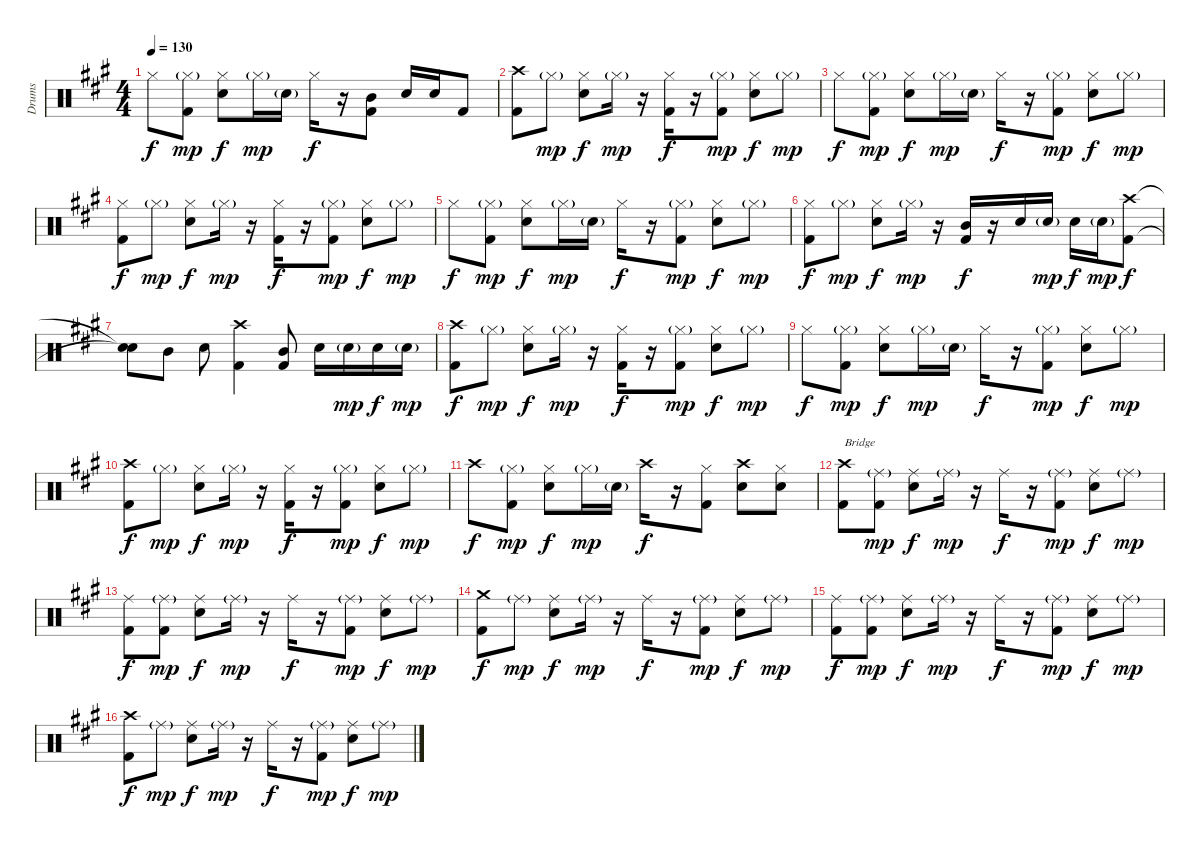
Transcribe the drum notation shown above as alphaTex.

\track ("Drums" "Drums") {instrument percussion}
\staff {score}
\articulation defaults
\ts (4 4)
\tempo 130
\clef neutral
\ks a "Hi-Hat (closed)".8{dy f}
("Hi-Hat (closed)"{g} "Kick (hit) 2").8{dy mp} ("Hi-Hat (closed)" "Electric Snare (hit)").8{dy f} "Hi-Hat (closed)"{g}.16{dy mp} "Electric Snare (hit)"{g}.16 "Hi-Hat (closed)".16{dy f} r.16 ("Mid Tom (hit)" "Kick (hit) 2").8 "Electric Snare (hit)".16 "Electric Snare (hit)".16 "Kick (hit) 2".8 |
("Crash high (hit)" "Kick (hit) 2").8 "Hi-Hat (closed)"{g}.8{dy mp} ("Hi-Hat (closed)" "Electric Snare (hit)").8{dy f} "Hi-Hat (closed)"{g}.16{dy mp} r.16 ("Hi-Hat (closed)" "Kick (hit) 2").16{dy f} r.16 ("Hi-Hat (closed)"{g} "Kick (hit) 2").8{dy mp} ("Hi-Hat (closed)" "Electric Snare (hit)").8{dy f} "Hi-Hat (closed)"{g}.8{dy mp} |
"Hi-Hat (closed)".8{dy f} ("Hi-Hat (closed)"{g} "Kick (hit) 2").8{dy mp} ("Hi-Hat (closed)" "Electric Snare (hit)").8{dy f} "Hi-Hat (closed)"{g}.16{dy mp} "Electric Snare (hit)"{g}.16 "Hi-Hat (closed)".16{dy f} r.16 ("Hi-Hat (closed)"{g} "Kick (hit) 2").8{dy mp} ("Hi-Hat (closed)" "Electric Snare (hit)").8{dy f} "Hi-Hat (closed)"{g}.8{dy mp} |
("Hi-Hat (closed)" "Kick (hit) 2").8{dy f} "Hi-Hat (closed)"{g}.8{dy mp} ("Hi-Hat (closed)" "Electric Snare (hit)").8{dy f} "Hi-Hat (closed)"{g}.16{dy mp} r.16 ("Hi-Hat (closed)" "Kick (hit) 2").16{dy f} r.16 ("Hi-Hat (closed)"{g} "Kick (hit) 2").8{dy mp} ("Hi-Hat (closed)" "Electric Snare (hit)").8{dy f} "Hi-Hat (closed)"{g}.8{dy mp} |
"Hi-Hat (closed)".8{dy f} ("Hi-Hat (closed)"{g} "Kick (hit) 2").8{dy mp} ("Hi-Hat (closed)" "Electric Snare (hit)").8{dy f} "Hi-Hat (closed)"{g}.16{dy mp} "Electric Snare (hit)"{g}.16 "Hi-Hat (closed)".16{dy f} r.16 ("Hi-Hat (closed)"{g} "Kick (hit) 2").8{dy mp} ("Hi-Hat (closed)" "Electric Snare (hit)").8{dy f} "Hi-Hat (closed)"{g}.8{dy mp} |
("Hi-Hat (closed)" "Kick (hit) 2").8{dy f} "Hi-Hat (closed)"{g}.8{dy mp} ("Hi-Hat (closed)" "Electric Snare (hit)").8{dy f} "Hi-Hat (closed)"{g}.16{dy mp} r.16 ("Mid Tom (hit)" "Kick (hit) 2").16{dy f} r.16 "Electric Snare (hit)".16 "Electric Snare (hit)"{g}.16{dy mp} "Electric Snare (hit)".16{dy f} "Electric Snare (hit)"{g}.16{dy mp} ("Crash high (hit)" "Kick (hit) 2").8{dy f} |
("Snare (hit)"{t} "Snare (hit)"{t}).8 "Mid Tom (hit)".8 "Electric Snare (hit)".8 ("Crash high (hit)" "Kick (hit) 2").4 ("Mid Tom (hit)" "Kick (hit) 2").8 "Electric Snare (hit)".16 "Electric Snare (hit)"{g}.16{dy mp} "Electric Snare (hit)".16{dy f} "Electric Snare (hit)"{g}.16{dy mp} |
("Crash high (hit)" "Kick (hit) 2").8{dy f} "Hi-Hat (closed)"{g}.8{dy mp} ("Hi-Hat (closed)" "Electric Snare (hit)").8{dy f} "Hi-Hat (closed)"{g}.16{dy mp} r.16 ("Hi-Hat (closed)" "Kick (hit) 2").16{dy f} r.16 ("Hi-Hat (closed)"{g} "Kick (hit) 2").8{dy mp} ("Hi-Hat (closed)" "Electric Snare (hit)").8{dy f} "Hi-Hat (closed)"{g}.8{dy mp} |
"Hi-Hat (closed)".8{dy f} ("Hi-Hat (closed)"{g} "Kick (hit) 2").8{dy mp} ("Hi-Hat (closed)" "Electric Snare (hit)").8{dy f} "Hi-Hat (closed)"{g}.16{dy mp} "Electric Snare (hit)"{g}.16 "Hi-Hat (closed)".16{dy f} r.16 ("Hi-Hat (closed)"{g} "Kick (hit) 2").8{dy mp} ("Hi-Hat (closed)" "Electric Snare (hit)").8{dy f} "Hi-Hat (closed)"{g}.8{dy mp} |
("Crash high (hit)" "Kick (hit) 2").8{dy f} "Hi-Hat (closed)"{g}.8{dy mp} ("Hi-Hat (closed)" "Electric Snare (hit)").8{dy f} "Hi-Hat (closed)"{g}.16{dy mp} r.16 ("Hi-Hat (closed)" "Kick (hit) 2").16{dy f} r.16 ("Hi-Hat (closed)"{g} "Kick (hit) 2").8{dy mp} ("Hi-Hat (closed)" "Electric Snare (hit)").8{dy f} "Hi-Hat (closed)"{g}.8{dy mp} |
"Crash high (hit)".8{dy f} ("Hi-Hat (closed)"{g} "Kick (hit) 2").8{dy mp} ("Hi-Hat (closed)" "Electric Snare (hit)").8{dy f} "Hi-Hat (closed)"{g}.16{dy mp} "Electric Snare (hit)"{g}.16 "Crash high (hit)".16{dy f} r.16 ("Hi-Hat (closed)" "Kick (hit) 2").8 ("Crash high (hit)" "Electric Snare (hit)").8 ("Hi-Hat (closed)" "Electric Snare (hit)").8 |
("Crash high (hit)" "Kick (hit) 2").8{txt "Bridge"} ("Kick (hit) 2" "Ride (middle)"{g}).8{dy mp} ("Ride (middle)" "Electric Snare (hit)").8{dy f} "Ride (middle)"{g}.16{dy mp} r.16 "Ride (middle)".16{dy f} r.16 ("Ride (middle)"{g} "Kick (hit) 2").8{dy mp} ("Ride (middle)" "Electric Snare (hit)").8{dy f} "Ride (middle)"{g}.8{dy mp} |
("Ride (middle)" "Kick (hit) 2").8{dy f} ("Ride (middle)"{g} "Kick (hit) 2").8{dy mp} ("Ride (middle)" "Electric Snare (hit)").8{dy f} "Ride (middle)"{g}.16{dy mp} r.16 "Ride (middle)".16{dy f} r.16 ("Ride (middle)"{g} "Kick (hit) 2").8{dy mp} ("Ride (middle)" "Electric Snare (hit)").8{dy f} "Ride (middle)"{g}.8{dy mp} |
("Crash medium (hit)" "Kick (hit) 2").8{dy f} "Ride (middle)"{g}.8{dy mp} ("Ride (middle)" "Electric Snare (hit)").8{dy f} "Ride (middle)"{g}.16{dy mp} r.16 "Ride (middle)".16{dy f} r.16 ("Ride (middle)"{g} "Kick (hit) 2").8{dy mp} ("Ride (middle)" "Electric Snare (hit)").8{dy f} "Ride (middle)"{g}.8{dy mp} |
("Ride (middle)" "Kick (hit) 2").8{dy f} ("Ride (middle)"{g} "Kick (hit) 2").8{dy mp} ("Ride (middle)" "Electric Snare (hit)").8{dy f} "Ride (middle)"{g}.16{dy mp} r.16 "Ride (middle)".16{dy f} r.16 ("Ride (middle)"{g} "Kick (hit) 2").8{dy mp} ("Ride (middle)" "Electric Snare (hit)").8{dy f} "Ride (middle)"{g}.8{dy mp} |
("Crash high (hit)" "Kick (hit) 2").8{dy f} "Ride (middle)"{g}.8{dy mp} ("Ride (middle)" "Electric Snare (hit)").8{dy f} "Ride (middle)"{g}.16{dy mp} r.16 "Ride (middle)".16{dy f} r.16 ("Ride (middle)"{g} "Kick (hit) 2").8{dy mp} ("Ride (middle)" "Electric Snare (hit)").8{dy f} "Ride (middle)"{g}.8{dy mp}
